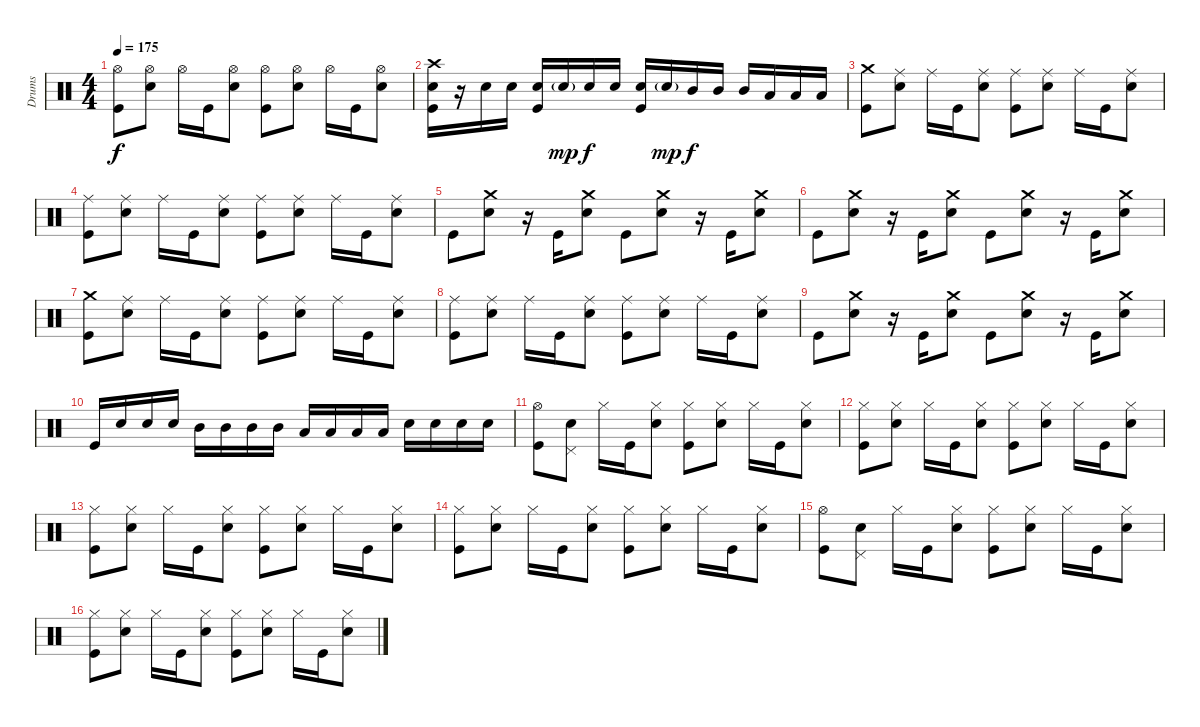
\track ("Drums" "Drums") {instrument percussion}
\staff {score}
\articulation defaults
\ts (4 4)
\tempo 175
\clef neutral
\ks c
("Hi-Hat (open)" "Kick (hit)").8{dy f} ("Hi-Hat (open)" "Electric Snare (hit)").8 "Hi-Hat (open)".16 "Kick (hit)".16 ("Hi-Hat (open)" "Electric Snare (hit)").8 ("Hi-Hat (open)" "Kick (hit)").8 ("Hi-Hat (open)" "Electric Snare (hit)").8 "Hi-Hat (open)".16 "Kick (hit)".16 ("Hi-Hat (open)" "Electric Snare (hit)").8 |
("Crash high (hit)" "Electric Snare (hit)" "Kick (hit)").16 r.16 "Electric Snare (hit)".16 "Electric Snare (hit)".16 ("Electric Snare (hit)" "Kick (hit)").16 "Electric Snare (hit)"{g}.16{dy mp} "Electric Snare (hit)".16{dy f} "Electric Snare (hit)".16 ("Electric Snare (hit)" "Kick (hit)").16 "Electric Snare (hit)"{g}.16{dy mp} "Mid Tom (hit)".16{dy f} "Mid Tom (hit)".16 "Mid Tom (hit)".16 "Low Tom (hit)".16 "Low Tom (hit)".16 "Low Tom (hit)".16 |
("Crash medium (hit)" "Kick (hit)").8 ("Ride (middle)" "Electric Snare (hit)").8 "Ride (middle)".16 "Kick (hit)".16 ("Ride (middle)" "Electric Snare (hit)").8 ("Ride (middle)" "Kick (hit)").8 ("Ride (middle)" "Electric Snare (hit)").8 "Ride (middle)".16 "Kick (hit)".16 ("Ride (middle)" "Electric Snare (hit)").8 |
("Ride (middle)" "Kick (hit)").8 ("Ride (middle)" "Electric Snare (hit)").8 "Ride (middle)".16 "Kick (hit)".16 ("Ride (middle)" "Electric Snare (hit)").8 ("Ride (middle)" "Kick (hit)").8 ("Ride (middle)" "Electric Snare (hit)").8 "Ride (middle)".16 "Kick (hit)".16 ("Ride (middle)" "Electric Snare (hit)").8 |
"Kick (hit)".8 ("Crash medium (hit)" "Electric Snare (hit)").8 r.16 "Kick (hit)".16 ("Crash medium (hit)" "Electric Snare (hit)").8 "Kick (hit)".8 ("Crash medium (hit)" "Electric Snare (hit)").8 r.16 "Kick (hit)".16 ("Crash medium (hit)" "Electric Snare (hit)").8 |
"Kick (hit)".8 ("Crash medium (hit)" "Electric Snare (hit)").8 r.16 "Kick (hit)".16 ("Crash medium (hit)" "Electric Snare (hit)").8 "Kick (hit)".8 ("Crash medium (hit)" "Electric Snare (hit)").8 r.16 "Kick (hit)".16 ("Crash medium (hit)" "Electric Snare (hit)").8 |
("Crash medium (hit)" "Kick (hit)").8 ("Ride (middle)" "Electric Snare (hit)").8 "Ride (middle)".16 "Kick (hit)".16 ("Ride (middle)" "Electric Snare (hit)").8 ("Ride (middle)" "Kick (hit)").8 ("Ride (middle)" "Electric Snare (hit)").8 "Ride (middle)".16 "Kick (hit)".16 ("Ride (middle)" "Electric Snare (hit)").8 |
("Ride (middle)" "Kick (hit)").8 ("Ride (middle)" "Electric Snare (hit)").8 "Ride (middle)".16 "Kick (hit)".16 ("Ride (middle)" "Electric Snare (hit)").8 ("Ride (middle)" "Kick (hit)").8 ("Ride (middle)" "Electric Snare (hit)").8 "Ride (middle)".16 "Kick (hit)".16 ("Ride (middle)" "Electric Snare (hit)").8 |
"Kick (hit)".8 ("Crash medium (hit)" "Electric Snare (hit)").8 r.16 "Kick (hit)".16 ("Crash medium (hit)" "Electric Snare (hit)").8 "Kick (hit)".8 ("Crash medium (hit)" "Electric Snare (hit)").8 r.16 "Kick (hit)".16 ("Crash medium (hit)" "Electric Snare (hit)").8 |
"Kick (hit)".16 "Electric Snare (hit)".16 "Electric Snare (hit)".16 "Electric Snare (hit)".16 "Mid Tom (hit)".16 "Mid Tom (hit)".16 "Mid Tom (hit)".16 "Mid Tom (hit)".16 "Low Tom (hit)".16 "Low Tom (hit)".16 "Low Tom (hit)".16 "Low Tom (hit)".16 "Electric Snare (hit)".16 "Electric Snare (hit)".16 "Electric Snare (hit)".16 "Electric Snare (hit)".16 |
("Hi-Hat (open)" "Kick (hit)").8 ("Pedal Hi-Hat (hit)" "Electric Snare (hit)").8 "Hi-Hat (closed)".16 "Kick (hit)".16 ("Hi-Hat (closed)" "Electric Snare (hit)").8 ("Hi-Hat (closed)" "Kick (hit)").8 ("Hi-Hat (closed)" "Electric Snare (hit)").8 "Hi-Hat (closed)".16 "Kick (hit)".16 ("Hi-Hat (closed)" "Electric Snare (hit)").8 |
("Hi-Hat (closed)" "Kick (hit)").8 ("Hi-Hat (closed)" "Electric Snare (hit)").8 "Hi-Hat (closed)".16 "Kick (hit)".16 ("Hi-Hat (closed)" "Electric Snare (hit)").8 ("Hi-Hat (closed)" "Kick (hit)").8 ("Hi-Hat (closed)" "Electric Snare (hit)").8 "Hi-Hat (closed)".16 "Kick (hit)".16 ("Hi-Hat (closed)" "Electric Snare (hit)").8 |
("Hi-Hat (closed)" "Kick (hit)").8 ("Hi-Hat (closed)" "Electric Snare (hit)").8 "Hi-Hat (closed)".16 "Kick (hit)".16 ("Hi-Hat (closed)" "Electric Snare (hit)").8 ("Hi-Hat (closed)" "Kick (hit)").8 ("Hi-Hat (closed)" "Electric Snare (hit)").8 "Hi-Hat (closed)".16 "Kick (hit)".16 ("Hi-Hat (closed)" "Electric Snare (hit)").8 |
("Hi-Hat (closed)" "Kick (hit)").8 ("Hi-Hat (closed)" "Electric Snare (hit)").8 "Hi-Hat (closed)".16 "Kick (hit)".16 ("Hi-Hat (closed)" "Electric Snare (hit)").8 ("Hi-Hat (closed)" "Kick (hit)").8 ("Hi-Hat (closed)" "Electric Snare (hit)").8 "Hi-Hat (closed)".16 "Kick (hit)".16 ("Hi-Hat (closed)" "Electric Snare (hit)").8 |
("Hi-Hat (open)" "Kick (hit)").8 ("Pedal Hi-Hat (hit)" "Electric Snare (hit)").8 "Hi-Hat (closed)".16 "Kick (hit)".16 ("Hi-Hat (closed)" "Electric Snare (hit)").8 ("Hi-Hat (closed)" "Kick (hit)").8 ("Hi-Hat (closed)" "Electric Snare (hit)").8 "Hi-Hat (closed)".16 "Kick (hit)".16 ("Hi-Hat (closed)" "Electric Snare (hit)").8 |
("Hi-Hat (closed)" "Kick (hit)").8 ("Hi-Hat (closed)" "Electric Snare (hit)").8 "Hi-Hat (closed)".16 "Kick (hit)".16 ("Hi-Hat (closed)" "Electric Snare (hit)").8 ("Hi-Hat (closed)" "Kick (hit)").8 ("Hi-Hat (closed)" "Electric Snare (hit)").8 "Hi-Hat (closed)".16 "Kick (hit)".16 ("Hi-Hat (closed)" "Electric Snare (hit)").8
